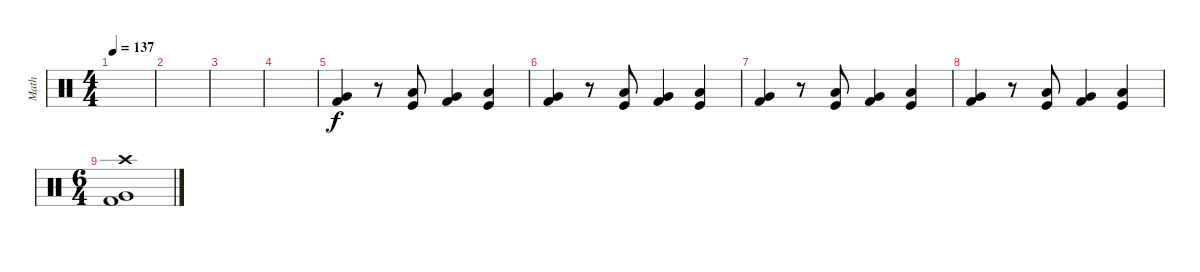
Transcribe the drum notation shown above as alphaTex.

\track ("Math" "Math") {instrument percussion}
\staff {score}
\articulation defaults
\ts (4 4)
\tempo 137
\clef neutral
\ks c
|
|
|
|
("Very Low Tom (hit)" "Kick (hit) 2").4 r.8 ("Low Tom (hit)" "Kick (hit)").8 ("Very Low Tom (hit)" "Kick (hit) 2").4 ("Low Tom (hit)" "Kick (hit)").4 |
("Very Low Tom (hit)" "Kick (hit) 2").4 r.8 ("Low Tom (hit)" "Kick (hit)").8 ("Very Low Tom (hit)" "Kick (hit) 2").4 ("Low Tom (hit)" "Kick (hit)").4 |
("Very Low Tom (hit)" "Kick (hit) 2").4 r.8 ("Low Tom (hit)" "Kick (hit)").8 ("Very Low Tom (hit)" "Kick (hit) 2").4 ("Low Tom (hit)" "Kick (hit)").4 |
("Very Low Tom (hit)" "Kick (hit) 2").4 r.8 ("Low Tom (hit)" "Kick (hit)").8 ("Very Low Tom (hit)" "Kick (hit) 2").4 ("Low Tom (hit)" "Kick (hit)").4 |
\ts (6 4)
("Crash high (hit)" "Kick (hit) 2" "Very Low Tom (hit)").1
